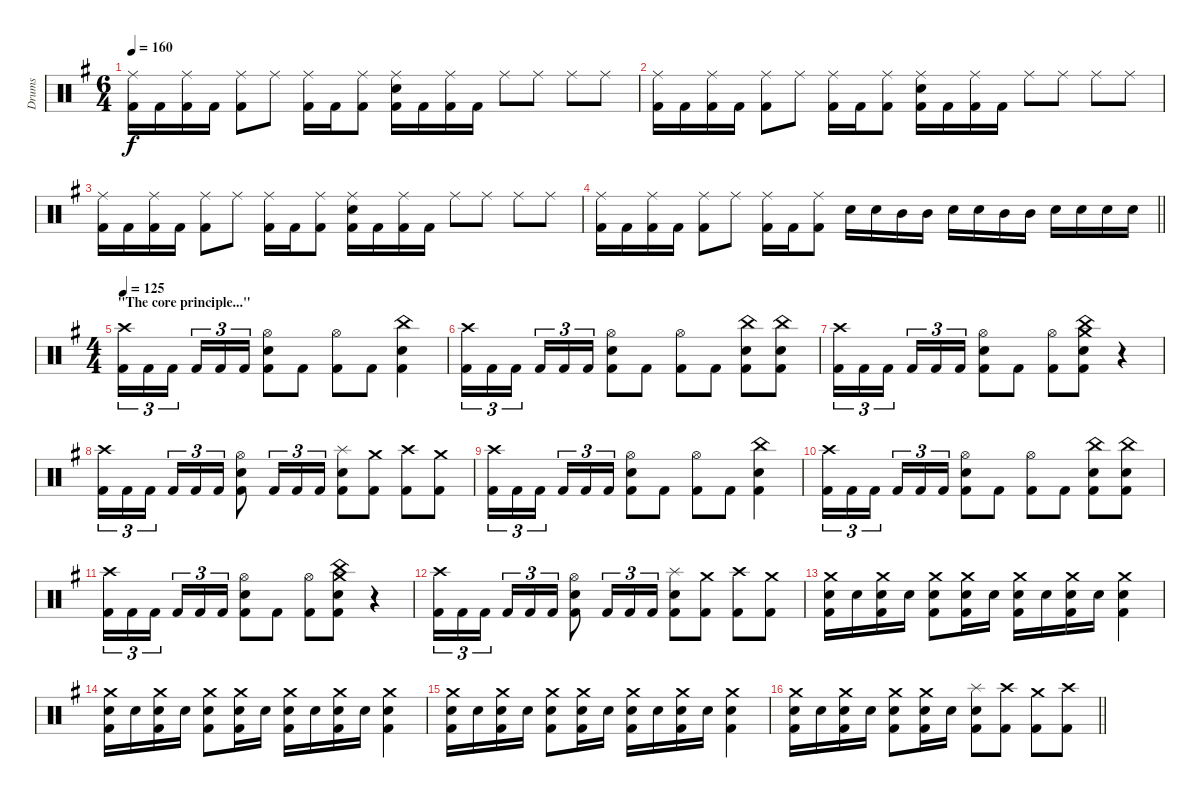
\track ("Drums" "Drums") {instrument percussion}
\staff {score}
\articulation defaults
\ts (6 4)
\tempo 160
\clef neutral
\ks g
("Ride (middle)" "Kick (hit) 2").16{dy f} "Kick (hit) 2".16 ("Ride (middle)" "Kick (hit) 2").16 "Kick (hit) 2".16 ("Ride (middle)" "Kick (hit) 2").8 "Ride (middle)".8 ("Ride (middle)" "Kick (hit) 2").16 "Kick (hit) 2".16 ("Ride (middle)" "Kick (hit) 2").8 ("Ride (middle)" "Electric Snare (hit)" "Kick (hit) 2").16 "Kick (hit) 2".16 ("Ride (middle)" "Kick (hit) 2").16 "Kick (hit) 2".16 "Ride (middle)".8 "Ride (middle)".8 "Ride (middle)".8 "Ride (middle)".8 |
("Ride (middle)" "Kick (hit) 2").16 "Kick (hit) 2".16 ("Ride (middle)" "Kick (hit) 2").16 "Kick (hit) 2".16 ("Ride (middle)" "Kick (hit) 2").8 "Ride (middle)".8 ("Ride (middle)" "Kick (hit) 2").16 "Kick (hit) 2".16 ("Ride (middle)" "Kick (hit) 2").8 ("Ride (middle)" "Electric Snare (hit)" "Kick (hit) 2").16 "Kick (hit) 2".16 ("Ride (middle)" "Kick (hit) 2").16 "Kick (hit) 2".16 "Ride (middle)".8 "Ride (middle)".8 "Ride (middle)".8 "Ride (middle)".8 |
("Ride (middle)" "Kick (hit) 2").16 "Kick (hit) 2".16 ("Ride (middle)" "Kick (hit) 2").16 "Kick (hit) 2".16 ("Ride (middle)" "Kick (hit) 2").8 "Ride (middle)".8 ("Ride (middle)" "Kick (hit) 2").16 "Kick (hit) 2".16 ("Ride (middle)" "Kick (hit) 2").8 ("Ride (middle)" "Electric Snare (hit)" "Kick (hit) 2").16 "Kick (hit) 2".16 ("Ride (middle)" "Kick (hit) 2").16 "Kick (hit) 2".16 "Ride (middle)".8 "Ride (middle)".8 "Ride (middle)".8 "Ride (middle)".8 |
\barLineRight lightlight
("Ride (middle)" "Kick (hit) 2").16 "Kick (hit) 2".16 ("Ride (middle)" "Kick (hit) 2").16 "Kick (hit) 2".16 ("Ride (middle)" "Kick (hit) 2").8 "Ride (middle)".8 ("Ride (middle)" "Kick (hit) 2").16 "Kick (hit) 2".16 ("Ride (middle)" "Kick (hit) 2").8 "Electric Snare (hit)".16 "Electric Snare (hit)".16 "Mid Tom (hit)".16 "Mid Tom (hit)".16 "Electric Snare (hit)".16 "Electric Snare (hit)".16 "Mid Tom (hit)".16 "Mid Tom (hit)".16 "Electric Snare (hit)".16 "Electric Snare (hit)".16 "Electric Snare (hit)".16 "Electric Snare (hit)".16 |
\ts (4 4)
\section ("" "\"The core principle...\"")
\tempo 125
("Crash high (hit)" "Kick (hit) 2").16{tu (3 2)} "Kick (hit) 2".16{tu (3 2)} "Kick (hit) 2".16{tu (3 2) beam splitsecondary} "Kick (hit) 2".16{tu (3 2)} "Kick (hit) 2".16{tu (3 2)} "Kick (hit) 2".16{tu (3 2)} ("Hi-Hat (open)" "Electric Snare (hit)" "Kick (hit) 2").8 "Kick (hit) 2".8 ("Hi-Hat (open)" "Kick (hit) 2").8 "Kick (hit) 2".8 ("China (hit)" "Electric Snare (hit)" "Kick (hit) 2").4 |
("Crash high (hit)" "Kick (hit) 2").16{tu (3 2)} "Kick (hit) 2".16{tu (3 2)} "Kick (hit) 2".16{tu (3 2) beam splitsecondary} "Kick (hit) 2".16{tu (3 2)} "Kick (hit) 2".16{tu (3 2)} "Kick (hit) 2".16{tu (3 2)} ("Hi-Hat (open)" "Electric Snare (hit)" "Kick (hit) 2").8 "Kick (hit) 2".8 ("Hi-Hat (open)" "Kick (hit) 2").8 "Kick (hit) 2".8 ("China (hit)" "Electric Snare (hit)" "Kick (hit) 2").8 ("China (hit)" "Electric Snare (hit)" "Kick (hit) 2").8 |
("Crash high (hit)" "Kick (hit) 2").16{tu (3 2)} "Kick (hit) 2".16{tu (3 2)} "Kick (hit) 2".16{tu (3 2) beam splitsecondary} "Kick (hit) 2".16{tu (3 2)} "Kick (hit) 2".16{tu (3 2)} "Kick (hit) 2".16{tu (3 2)} ("Hi-Hat (open)" "Electric Snare (hit)" "Kick (hit) 2").8 "Kick (hit) 2".8 ("Hi-Hat (open)" "Kick (hit) 2").8 ("China (hit)" "Crash medium (hit)" "Electric Snare (hit)" "Kick (hit) 2").8 r.4 |
("Crash high (hit)" "Kick (hit) 2").16{tu (3 2)} "Kick (hit) 2".16{tu (3 2)} "Kick (hit) 2".16{tu (3 2) beam splitsecondary} "Kick (hit) 2".16{tu (3 2)} "Kick (hit) 2".16{tu (3 2)} "Kick (hit) 2".16{tu (3 2)} ("Hi-Hat (open)" "Electric Snare (hit)" "Kick (hit) 2").8 "Kick (hit) 2".16{tu (3 2)} "Kick (hit) 2".16{tu (3 2)} "Kick (hit) 2".16{tu (3 2)} ("Splash (hit)" "Electric Snare (hit)" "Kick (hit) 2").8 ("Crash medium (hit)" "Kick (hit) 2").8 ("Crash high (hit)" "Kick (hit) 2").8 ("Crash medium (hit)" "Kick (hit) 2").8 |
("Crash high (hit)" "Kick (hit) 2").16{tu (3 2)} "Kick (hit) 2".16{tu (3 2)} "Kick (hit) 2".16{tu (3 2) beam splitsecondary} "Kick (hit) 2".16{tu (3 2)} "Kick (hit) 2".16{tu (3 2)} "Kick (hit) 2".16{tu (3 2)} ("Hi-Hat (open)" "Electric Snare (hit)" "Kick (hit) 2").8 "Kick (hit) 2".8 ("Hi-Hat (open)" "Kick (hit) 2").8 "Kick (hit) 2".8 ("China (hit)" "Electric Snare (hit)" "Kick (hit) 2").4 |
("Crash high (hit)" "Kick (hit) 2").16{tu (3 2)} "Kick (hit) 2".16{tu (3 2)} "Kick (hit) 2".16{tu (3 2) beam splitsecondary} "Kick (hit) 2".16{tu (3 2)} "Kick (hit) 2".16{tu (3 2)} "Kick (hit) 2".16{tu (3 2)} ("Hi-Hat (open)" "Electric Snare (hit)" "Kick (hit) 2").8 "Kick (hit) 2".8 ("Hi-Hat (open)" "Kick (hit) 2").8 "Kick (hit) 2".8 ("China (hit)" "Electric Snare (hit)" "Kick (hit) 2").8 ("China (hit)" "Electric Snare (hit)" "Kick (hit) 2").8 |
("Crash high (hit)" "Kick (hit) 2").16{tu (3 2)} "Kick (hit) 2".16{tu (3 2)} "Kick (hit) 2".16{tu (3 2) beam splitsecondary} "Kick (hit) 2".16{tu (3 2)} "Kick (hit) 2".16{tu (3 2)} "Kick (hit) 2".16{tu (3 2)} ("Hi-Hat (open)" "Electric Snare (hit)" "Kick (hit) 2").8 "Kick (hit) 2".8 ("Hi-Hat (open)" "Kick (hit) 2").8 ("China (hit)" "Crash medium (hit)" "Electric Snare (hit)" "Kick (hit) 2").8 r.4 |
("Crash high (hit)" "Kick (hit) 2").16{tu (3 2)} "Kick (hit) 2".16{tu (3 2)} "Kick (hit) 2".16{tu (3 2) beam splitsecondary} "Kick (hit) 2".16{tu (3 2)} "Kick (hit) 2".16{tu (3 2)} "Kick (hit) 2".16{tu (3 2)} ("Hi-Hat (open)" "Electric Snare (hit)" "Kick (hit) 2").8 "Kick (hit) 2".16{tu (3 2)} "Kick (hit) 2".16{tu (3 2)} "Kick (hit) 2".16{tu (3 2)} ("Splash (hit)" "Electric Snare (hit)" "Kick (hit) 2").8 ("Crash medium (hit)" "Kick (hit) 2").8 ("Crash high (hit)" "Kick (hit) 2").8 ("Crash medium (hit)" "Kick (hit) 2").8 |
("Crash medium (hit)" "Electric Snare (hit)" "Kick (hit) 2").16 "Electric Snare (hit)".16 ("Crash medium (hit)" "Electric Snare (hit)" "Kick (hit) 2").16 "Electric Snare (hit)".16 ("Crash medium (hit)" "Electric Snare (hit)" "Kick (hit) 2").8 ("Crash medium (hit)" "Electric Snare (hit)" "Kick (hit) 2").16 "Electric Snare (hit)".16 ("Crash medium (hit)" "Electric Snare (hit)" "Kick (hit) 2").16 "Electric Snare (hit)".16 ("Crash medium (hit)" "Electric Snare (hit)" "Kick (hit) 2").16 "Electric Snare (hit)".16 ("Crash medium (hit)" "Electric Snare (hit)" "Kick (hit) 2").4 |
("Crash medium (hit)" "Electric Snare (hit)" "Kick (hit) 2").16 "Electric Snare (hit)".16 ("Crash medium (hit)" "Electric Snare (hit)" "Kick (hit) 2").16 "Electric Snare (hit)".16 ("Crash medium (hit)" "Electric Snare (hit)" "Kick (hit) 2").8 ("Crash medium (hit)" "Electric Snare (hit)" "Kick (hit) 2").16 "Electric Snare (hit)".16 ("Crash medium (hit)" "Electric Snare (hit)" "Kick (hit) 2").16 "Electric Snare (hit)".16 ("Crash medium (hit)" "Electric Snare (hit)" "Kick (hit) 2").16 "Electric Snare (hit)".16 ("Crash medium (hit)" "Electric Snare (hit)" "Kick (hit) 2").4 |
("Crash medium (hit)" "Electric Snare (hit)" "Kick (hit) 2").16 "Electric Snare (hit)".16 ("Crash medium (hit)" "Electric Snare (hit)" "Kick (hit) 2").16 "Electric Snare (hit)".16 ("Crash medium (hit)" "Electric Snare (hit)" "Kick (hit) 2").8 ("Crash medium (hit)" "Electric Snare (hit)" "Kick (hit) 2").16 "Electric Snare (hit)".16 ("Crash medium (hit)" "Electric Snare (hit)" "Kick (hit) 2").16 "Electric Snare (hit)".16 ("Crash medium (hit)" "Electric Snare (hit)" "Kick (hit) 2").16 "Electric Snare (hit)".16 ("Crash medium (hit)" "Electric Snare (hit)" "Kick (hit) 2").4 |
\barLineRight lightlight
("Crash medium (hit)" "Electric Snare (hit)" "Kick (hit) 2").16 "Electric Snare (hit)".16 ("Crash medium (hit)" "Electric Snare (hit)" "Kick (hit) 2").16 "Electric Snare (hit)".16 ("Crash medium (hit)" "Electric Snare (hit)" "Kick (hit) 2").8 ("Crash medium (hit)" "Electric Snare (hit)" "Kick (hit) 2").16 "Electric Snare (hit)".16 ("Splash (hit)" "Electric Snare (hit)" "Kick (hit) 2").8 ("Crash high (hit)" "Kick (hit) 2").8 ("Crash medium (hit)" "Kick (hit) 2").8 ("Crash high (hit)" "Kick (hit) 2").8
